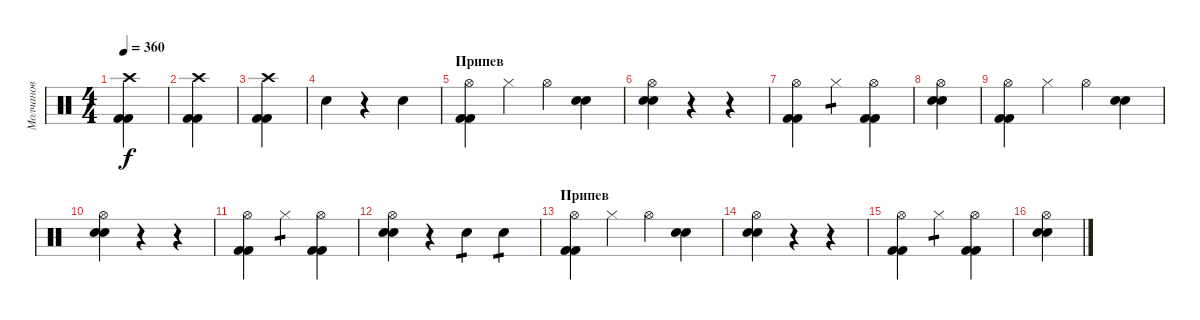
\track ("Молчанов" "Молчанов") {instrument percussion}
\staff {score}
\articulation defaults
\ts (4 4)
\tempo 360
\clef neutral
\ks c
("Kick (hit) 2" "Kick (hit) 2" "Crash high (hit)").4{dy f} |
("Kick (hit) 2" "Kick (hit) 2" "Crash high (hit)").4 |
("Kick (hit) 2" "Kick (hit) 2" "Crash high (hit)").4 |
"Electric Snare (hit)".4 r.4 "Electric Snare (hit)".4 |
\section ("" "Припев")
("Kick (hit) 2" "Kick (hit) 2" "Hi-Hat (open)").4 "Hi-Hat (closed)"{x}.4 "Hi-Hat (open)"{x}.4 ("Snare (hit)"{x} "Snare (hit)"{x}).4 |
("Electric Snare (hit)" "Electric Snare (hit)" "Hi-Hat (open)").4 r.4 r.4 |
("Kick (hit) 2" "Kick (hit) 2" "Hi-Hat (open)").4 "Hi-Hat (closed)".4{tp 1} ("Kick (hit) 2" "Kick (hit) 2" "Hi-Hat (open)").4 |
("Electric Snare (hit)" "Electric Snare (hit)" "Hi-Hat (open)").4 |
("Kick (hit) 2" "Kick (hit) 2" "Hi-Hat (open)").4 "Hi-Hat (closed)"{x}.4 "Hi-Hat (open)"{x}.4 ("Snare (hit)"{x} "Snare (hit)"{x}).4 |
("Electric Snare (hit)" "Electric Snare (hit)" "Hi-Hat (open)").4 r.4 r.4 |
("Kick (hit) 2" "Kick (hit) 2" "Hi-Hat (open)").4 "Hi-Hat (closed)".4{tp 1} ("Kick (hit) 2" "Kick (hit) 2" "Hi-Hat (open)").4 |
("Electric Snare (hit)" "Electric Snare (hit)" "Hi-Hat (open)").4 r.4 "Electric Snare (hit)".4{tp 1} "Electric Snare (hit)".4{tp 1} |
\section ("" "Припев")
("Kick (hit) 2" "Kick (hit) 2" "Hi-Hat (open)").4 "Hi-Hat (closed)"{x}.4 "Hi-Hat (open)"{x}.4 ("Snare (hit)"{x} "Snare (hit)"{x}).4 |
("Electric Snare (hit)" "Electric Snare (hit)" "Hi-Hat (open)").4 r.4 r.4 |
("Kick (hit) 2" "Kick (hit) 2" "Hi-Hat (open)").4 "Hi-Hat (closed)".4{tp 1} ("Kick (hit) 2" "Kick (hit) 2" "Hi-Hat (open)").4 |
("Electric Snare (hit)" "Electric Snare (hit)" "Hi-Hat (open)").4
